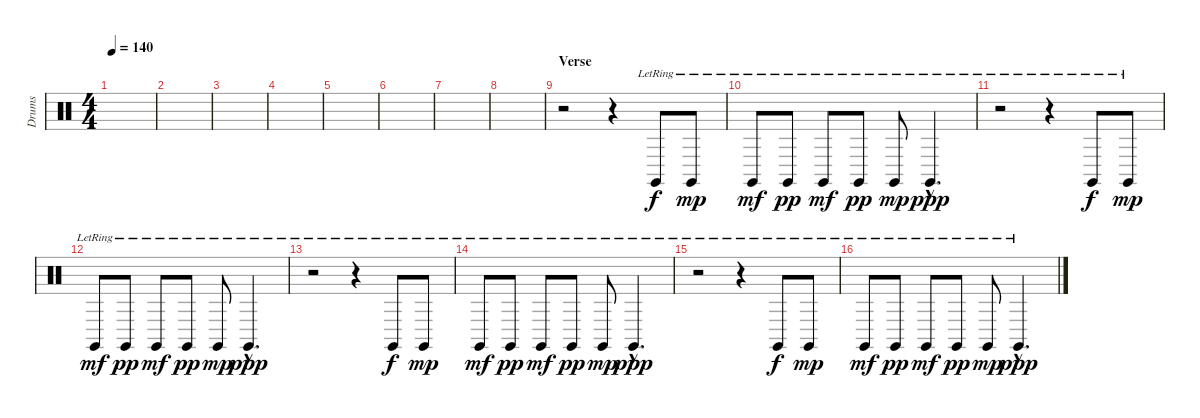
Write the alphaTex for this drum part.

\track ("Drums" "Drums") {instrument percussion}
\staff {score}
\articulation defaults
\ts (4 4)
\tempo 140
\clef neutral
\ks c
|
|
|
|
|
|
|
|
\section ("" "Verse")
r.2 r.4 "Claves (hit)"{lr}.8{dy f} "Claves (hit)"{lr}.8{dy mp} |
"Claves (hit)"{lr}.8{dy mf} "Claves (hit)"{lr}.8{dy pp} "Claves (hit)"{lr}.8{dy mf} "Claves (hit)"{lr}.8{dy pp} "Claves (hit)"{lr}.8{dy mp} "Claves (hit)"{hac lr}.4{d dy ppp} |
r.2 r.4 "Claves (hit)"{lr}.8{dy f} "Claves (hit)"{lr}.8{dy mp} |
"Claves (hit)"{lr}.8{dy mf} "Claves (hit)"{lr}.8{dy pp} "Claves (hit)"{lr}.8{dy mf} "Claves (hit)"{lr}.8{dy pp} "Claves (hit)"{lr}.8{dy mp} "Claves (hit)"{hac lr}.4{d dy ppp} |
r.2 r.4 "Claves (hit)"{lr}.8{dy f} "Claves (hit)"{lr}.8{dy mp} |
"Claves (hit)"{lr}.8{dy mf} "Claves (hit)"{lr}.8{dy pp} "Claves (hit)"{lr}.8{dy mf} "Claves (hit)"{lr}.8{dy pp} "Claves (hit)"{lr}.8{dy mp} "Claves (hit)"{hac lr}.4{d dy ppp} |
r.2 r.4 "Claves (hit)"{lr}.8{dy f} "Claves (hit)"{lr}.8{dy mp} |
"Claves (hit)"{lr}.8{dy mf} "Claves (hit)"{lr}.8{dy pp} "Claves (hit)"{lr}.8{dy mf} "Claves (hit)"{lr}.8{dy pp} "Claves (hit)"{lr}.8{dy mp} "Claves (hit)"{hac lr}.4{d dy ppp}
